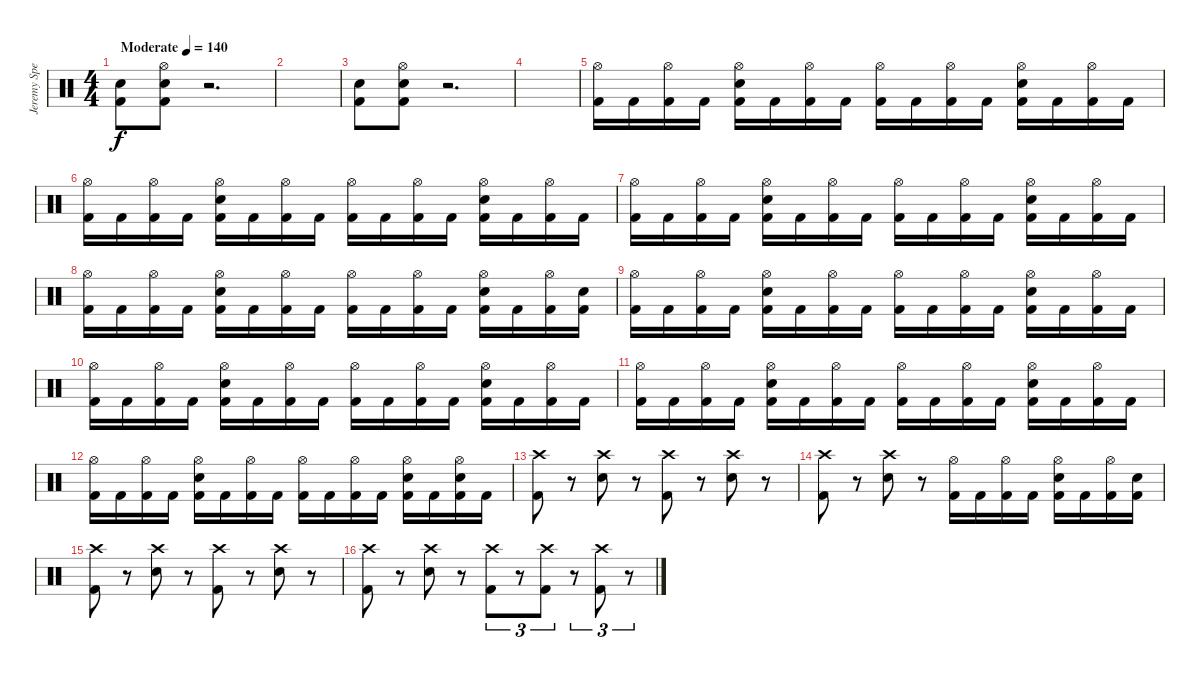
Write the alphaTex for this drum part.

\track ("Jeremy Spencer" "Jeremy Spe") {instrument percussion}
\staff {score}
\articulation defaults
\ts (4 4)
\tempo (140 "Moderate")
\clef neutral
\ks c
("Snare (hit) 2" "Kick (hit) 2").8{dy f} ("Hi-Hat (open)" "Snare (hit) 2" "Kick (hit) 2").8 r.2{d} |
|
("Snare (hit) 2" "Kick (hit) 2").8 ("Hi-Hat (open)" "Snare (hit) 2" "Kick (hit) 2").8 r.2{d} |
|
("Hi-Hat (open)" "Kick (hit) 2").16 "Kick (hit) 2".16 ("Hi-Hat (open)" "Kick (hit) 2").16 "Kick (hit) 2".16 ("Hi-Hat (open)" "Snare (hit) 2" "Kick (hit) 2").16 "Kick (hit) 2".16 ("Hi-Hat (open)" "Kick (hit) 2").16 "Kick (hit) 2".16 ("Hi-Hat (open)" "Kick (hit) 2").16 "Kick (hit) 2".16 ("Hi-Hat (open)" "Kick (hit) 2").16 "Kick (hit) 2".16 ("Hi-Hat (open)" "Snare (hit) 2" "Kick (hit) 2").16 "Kick (hit) 2".16 ("Hi-Hat (open)" "Kick (hit) 2").16 "Kick (hit) 2".16 |
("Hi-Hat (open)" "Kick (hit) 2").16 "Kick (hit) 2".16 ("Hi-Hat (open)" "Kick (hit) 2").16 "Kick (hit) 2".16 ("Hi-Hat (open)" "Snare (hit) 2" "Kick (hit) 2").16 "Kick (hit) 2".16 ("Hi-Hat (open)" "Kick (hit) 2").16 "Kick (hit) 2".16 ("Hi-Hat (open)" "Kick (hit) 2").16 "Kick (hit) 2".16 ("Hi-Hat (open)" "Kick (hit) 2").16 "Kick (hit) 2".16 ("Hi-Hat (open)" "Snare (hit) 2" "Kick (hit) 2").16 "Kick (hit) 2".16 ("Hi-Hat (open)" "Kick (hit) 2").16 "Kick (hit) 2".16 |
("Hi-Hat (open)" "Kick (hit) 2").16 "Kick (hit) 2".16 ("Hi-Hat (open)" "Kick (hit) 2").16 "Kick (hit) 2".16 ("Hi-Hat (open)" "Snare (hit) 2" "Kick (hit) 2").16 "Kick (hit) 2".16 ("Hi-Hat (open)" "Kick (hit) 2").16 "Kick (hit) 2".16 ("Hi-Hat (open)" "Kick (hit) 2").16 "Kick (hit) 2".16 ("Hi-Hat (open)" "Kick (hit) 2").16 "Kick (hit) 2".16 ("Hi-Hat (open)" "Snare (hit) 2" "Kick (hit) 2").16 "Kick (hit) 2".16 ("Hi-Hat (open)" "Kick (hit) 2").16 "Kick (hit) 2".16 |
("Hi-Hat (open)" "Kick (hit) 2").16 "Kick (hit) 2".16 ("Hi-Hat (open)" "Kick (hit) 2").16 "Kick (hit) 2".16 ("Hi-Hat (open)" "Snare (hit) 2" "Kick (hit) 2").16 "Kick (hit) 2".16 ("Hi-Hat (open)" "Kick (hit) 2").16 "Kick (hit) 2".16 ("Hi-Hat (open)" "Kick (hit) 2").16 "Kick (hit) 2".16 ("Hi-Hat (open)" "Kick (hit) 2").16 "Kick (hit) 2".16 ("Hi-Hat (open)" "Snare (hit) 2" "Kick (hit) 2").16 "Kick (hit) 2".16 ("Hi-Hat (open)" "Kick (hit) 2").16 ("Snare (hit) 2" "Kick (hit) 2").16 |
("Hi-Hat (open)" "Kick (hit) 2").16 "Kick (hit) 2".16 ("Hi-Hat (open)" "Kick (hit) 2").16 "Kick (hit) 2".16 ("Hi-Hat (open)" "Snare (hit) 2" "Kick (hit) 2").16 "Kick (hit) 2".16 ("Hi-Hat (open)" "Kick (hit) 2").16 "Kick (hit) 2".16 ("Hi-Hat (open)" "Kick (hit) 2").16 "Kick (hit) 2".16 ("Hi-Hat (open)" "Kick (hit) 2").16 "Kick (hit) 2".16 ("Hi-Hat (open)" "Snare (hit) 2" "Kick (hit) 2").16 "Kick (hit) 2".16 ("Hi-Hat (open)" "Kick (hit) 2").16 "Kick (hit) 2".16 |
("Hi-Hat (open)" "Kick (hit) 2").16 "Kick (hit) 2".16 ("Hi-Hat (open)" "Kick (hit) 2").16 "Kick (hit) 2".16 ("Hi-Hat (open)" "Snare (hit) 2" "Kick (hit) 2").16 "Kick (hit) 2".16 ("Hi-Hat (open)" "Kick (hit) 2").16 "Kick (hit) 2".16 ("Hi-Hat (open)" "Kick (hit) 2").16 "Kick (hit) 2".16 ("Hi-Hat (open)" "Kick (hit) 2").16 "Kick (hit) 2".16 ("Hi-Hat (open)" "Snare (hit) 2" "Kick (hit) 2").16 "Kick (hit) 2".16 ("Hi-Hat (open)" "Kick (hit) 2").16 "Kick (hit) 2".16 |
("Hi-Hat (open)" "Kick (hit) 2").16 "Kick (hit) 2".16 ("Hi-Hat (open)" "Kick (hit) 2").16 "Kick (hit) 2".16 ("Hi-Hat (open)" "Snare (hit) 2" "Kick (hit) 2").16 "Kick (hit) 2".16 ("Hi-Hat (open)" "Kick (hit) 2").16 "Kick (hit) 2".16 ("Hi-Hat (open)" "Kick (hit) 2").16 "Kick (hit) 2".16 ("Hi-Hat (open)" "Kick (hit) 2").16 "Kick (hit) 2".16 ("Hi-Hat (open)" "Snare (hit) 2" "Kick (hit) 2").16 "Kick (hit) 2".16 ("Hi-Hat (open)" "Kick (hit) 2").16 "Kick (hit) 2".16 |
("Hi-Hat (open)" "Kick (hit) 2").16 "Kick (hit) 2".16 ("Hi-Hat (open)" "Kick (hit) 2").16 "Kick (hit) 2".16 ("Hi-Hat (open)" "Snare (hit) 2" "Kick (hit) 2").16 "Kick (hit) 2".16 ("Hi-Hat (open)" "Kick (hit) 2").16 "Kick (hit) 2".16 ("Hi-Hat (open)" "Kick (hit) 2").16 "Kick (hit) 2".16 ("Hi-Hat (open)" "Kick (hit) 2").16 "Kick (hit) 2".16 ("Hi-Hat (open)" "Snare (hit) 2" "Kick (hit) 2").16 "Kick (hit) 2".16 ("Hi-Hat (open)" "Snare (hit) 2" "Kick (hit) 2").16 "Kick (hit) 2".16 |
("Crash high (hit)" "Kick (hit) 2").8 r.8 ("Crash high (hit)" "Snare (hit) 2").8 r.8 ("Crash high (hit)" "Kick (hit) 2").8 r.8 ("Crash high (hit)" "Snare (hit) 2").8 r.8 |
("Crash high (hit)" "Kick (hit) 2").8 r.8 ("Crash high (hit)" "Snare (hit) 2").8 r.8 ("Hi-Hat (open)" "Kick (hit) 2").16 "Kick (hit) 2".16 ("Hi-Hat (open)" "Kick (hit) 2").16 "Kick (hit) 2".16 ("Hi-Hat (open)" "Snare (hit) 2" "Kick (hit) 2").16 "Kick (hit) 2".16 ("Hi-Hat (open)" "Kick (hit) 2").16 ("Snare (hit) 2" "Kick (hit) 2").16 |
("Crash high (hit)" "Kick (hit) 2").8 r.8 ("Crash high (hit)" "Snare (hit) 2").8 r.8 ("Crash high (hit)" "Kick (hit) 2").8 r.8 ("Crash high (hit)" "Snare (hit) 2").8 r.8 |
("Crash high (hit)" "Kick (hit) 2").8 r.8 ("Crash high (hit)" "Snare (hit) 2").8 r.8 ("Crash high (hit)" "Kick (hit) 2").8{tu (3 2)} r.8{tu (3 2)} ("Crash high (hit)" "Kick (hit) 2").8{tu (3 2)} r.8{tu (3 2)} ("Crash high (hit)" "Kick (hit) 2").8{tu (3 2)} r.8{tu (3 2)}
